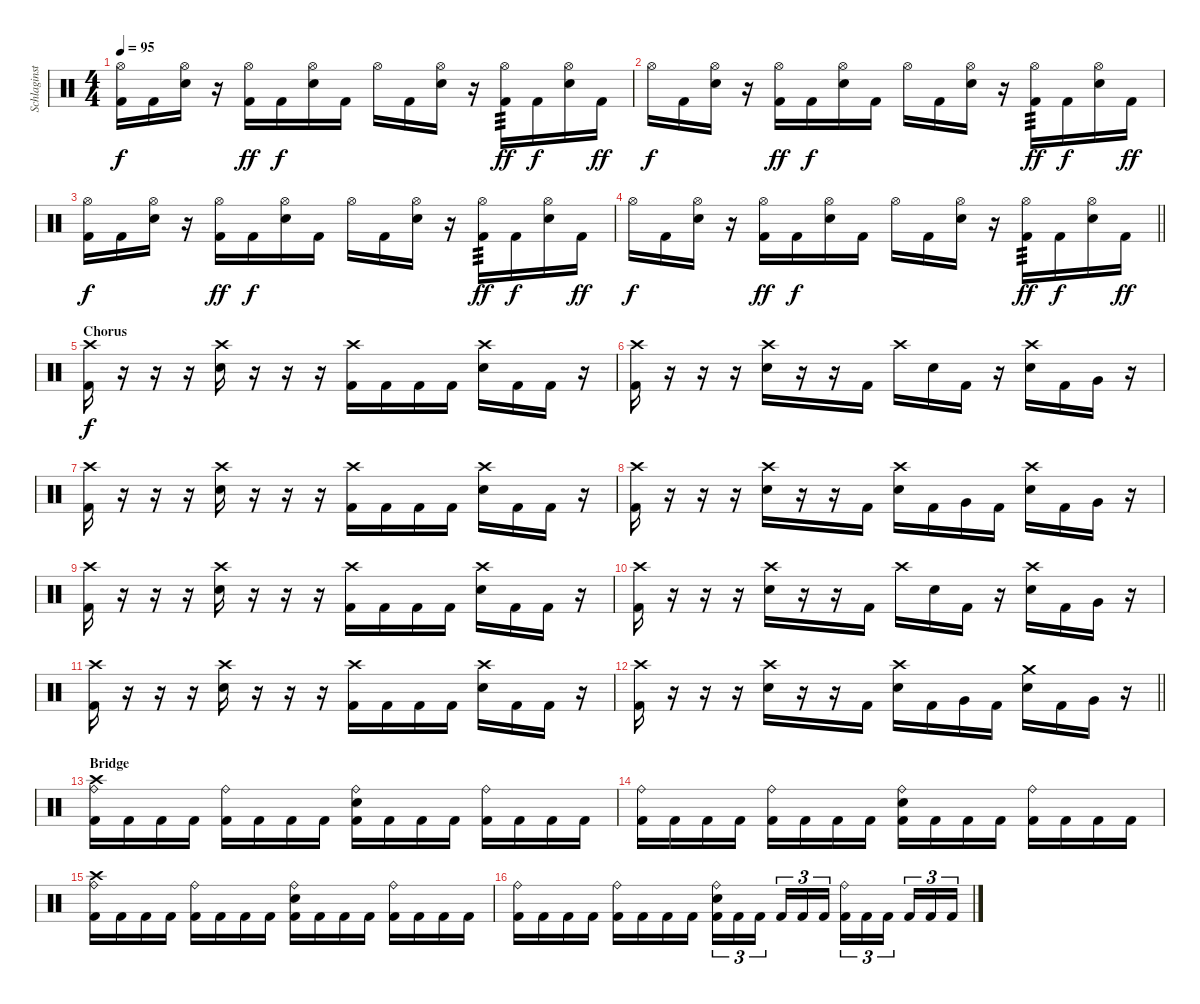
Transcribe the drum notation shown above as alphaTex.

\track ("Schlaginstrumente - Auswahl" "Schlaginst") {instrument percussion}
\staff {score}
\articulation defaults
\ts (4 4)
\tempo 95
\clef neutral
\ks c
("Hi-Hat (open)" "Kick (hit) 2").16{dy f} "Kick (hit) 2".16 ("Hi-Hat (open)" "Electric Snare (hit)").16 r.16 ("Hi-Hat (open)" "Kick (hit) 2").16{dy ff} "Kick (hit) 2".16{dy f} ("Hi-Hat (open)" "Electric Snare (hit)").16 "Kick (hit) 2".16 "Hi-Hat (open)".16 "Kick (hit) 2".16 ("Hi-Hat (open)" "Electric Snare (hit)").16 r.16 ("Hi-Hat (open)" "Kick (hit) 2").16{tp 3 dy ff} "Kick (hit) 2".16{dy f} ("Hi-Hat (open)" "Electric Snare (hit)").16 "Kick (hit) 2".16{dy ff} |
"Hi-Hat (open)".16{dy f} "Kick (hit) 2".16 ("Hi-Hat (open)" "Electric Snare (hit)").16 r.16 ("Hi-Hat (open)" "Kick (hit) 2").16{dy ff} "Kick (hit) 2".16{dy f} ("Hi-Hat (open)" "Electric Snare (hit)").16 "Kick (hit) 2".16 "Hi-Hat (open)".16 "Kick (hit) 2".16 ("Hi-Hat (open)" "Electric Snare (hit)").16 r.16 ("Hi-Hat (open)" "Kick (hit) 2").16{tp 3 dy ff} "Kick (hit) 2".16{dy f} ("Hi-Hat (open)" "Electric Snare (hit)").16 "Kick (hit) 2".16{dy ff} |
("Hi-Hat (open)" "Kick (hit) 2").16{dy f} "Kick (hit) 2".16 ("Hi-Hat (open)" "Electric Snare (hit)").16 r.16 ("Hi-Hat (open)" "Kick (hit) 2").16{dy ff} "Kick (hit) 2".16{dy f} ("Hi-Hat (open)" "Electric Snare (hit)").16 "Kick (hit) 2".16 "Hi-Hat (open)".16 "Kick (hit) 2".16 ("Hi-Hat (open)" "Electric Snare (hit)").16 r.16 ("Hi-Hat (open)" "Kick (hit) 2").16{tp 3 dy ff} "Kick (hit) 2".16{dy f} ("Hi-Hat (open)" "Electric Snare (hit)").16 "Kick (hit) 2".16{dy ff} |
\barLineRight lightlight "Hi-Hat (open)".16{dy f} "Kick (hit) 2".16
("Hi-Hat (open)" "Electric Snare (hit)").16 r.16 ("Hi-Hat (open)" "Kick (hit) 2").16{dy ff} "Kick (hit) 2".16{dy f} ("Hi-Hat (open)" "Electric Snare (hit)").16 "Kick (hit) 2".16 "Hi-Hat (open)".16 "Kick (hit) 2".16 ("Hi-Hat (open)" "Electric Snare (hit)").16 r.16 ("Hi-Hat (open)" "Kick (hit) 2").16{tp 3 dy ff} "Kick (hit) 2".16{dy f} ("Hi-Hat (open)" "Electric Snare (hit)").16 "Kick (hit) 2".16{dy ff} |
\section ("" "Chorus")
("Crash high (hit)" "Kick (hit) 2").16{dy f} r.16 r.16 r.16 ("Crash high (hit)" "Electric Snare (hit)").16 r.16 r.16 r.16 ("Crash high (hit)" "Kick (hit) 2").16 "Kick (hit) 2".16 "Kick (hit) 2".16 "Kick (hit) 2".16 ("Crash high (hit)" "Electric Snare (hit)").16 "Kick (hit) 2".16 "Kick (hit) 2".16 r.16 |
("Crash high (hit)" "Kick (hit) 2").16 r.16 r.16 r.16 ("Crash high (hit)" "Electric Snare (hit)").16 r.16 r.16 "Kick (hit) 2".16 "Crash high (hit)".16 "Electric Snare (hit)".16 "Kick (hit) 2".16 r.16 ("Crash high (hit)" "Electric Snare (hit)").16 "Kick (hit) 2".16 "Very Low Tom (hit)".16 r.16 |
("Crash high (hit)" "Kick (hit) 2").16 r.16 r.16 r.16 ("Crash high (hit)" "Electric Snare (hit)").16 r.16 r.16 r.16 ("Crash high (hit)" "Kick (hit) 2").16 "Kick (hit) 2".16 "Kick (hit) 2".16 "Kick (hit) 2".16 ("Crash high (hit)" "Electric Snare (hit)").16 "Kick (hit) 2".16 "Kick (hit) 2".16 r.16 |
("Crash high (hit)" "Kick (hit) 2").16 r.16 r.16 r.16 ("Crash high (hit)" "Electric Snare (hit)").16 r.16 r.16 "Kick (hit) 2".16 ("Crash high (hit)" "Electric Snare (hit)").16 "Kick (hit) 2".16 "Very Low Tom (hit)".16 "Kick (hit) 2".16 ("Crash high (hit)" "Electric Snare (hit)").16 "Kick (hit) 2".16 "Very Low Tom (hit)".16 r.16 |
("Crash high (hit)" "Kick (hit) 2").16 r.16 r.16 r.16 ("Crash high (hit)" "Electric Snare (hit)").16 r.16 r.16 r.16 ("Crash high (hit)" "Kick (hit) 2").16 "Kick (hit) 2".16 "Kick (hit) 2".16 "Kick (hit) 2".16 ("Crash high (hit)" "Electric Snare (hit)").16 "Kick (hit) 2".16 "Kick (hit) 2".16 r.16 |
("Crash high (hit)" "Kick (hit) 2").16 r.16 r.16 r.16 ("Crash high (hit)" "Electric Snare (hit)").16 r.16 r.16 "Kick (hit) 2".16 "Crash high (hit)".16 "Electric Snare (hit)".16 "Kick (hit) 2".16 r.16 ("Crash high (hit)" "Electric Snare (hit)").16 "Kick (hit) 2".16 "Very Low Tom (hit)".16 r.16 |
("Crash high (hit)" "Kick (hit) 2").16 r.16 r.16 r.16 ("Crash high (hit)" "Electric Snare (hit)").16 r.16 r.16 r.16 ("Crash high (hit)" "Kick (hit) 2").16 "Kick (hit) 2".16 "Kick (hit) 2".16 "Kick (hit) 2".16 ("Crash high (hit)" "Electric Snare (hit)").16 "Kick (hit) 2".16 "Kick (hit) 2".16 r.16 |
\barLineRight lightlight
("Crash high (hit)" "Kick (hit) 2").16 r.16 r.16 r.16 ("Crash high (hit)" "Electric Snare (hit)").16 r.16 r.16 "Kick (hit) 2".16 ("Crash high (hit)" "Electric Snare (hit)").16 "Kick (hit) 2".16 "Very Low Tom (hit)".16 "Kick (hit) 2".16 ("Crash medium (hit)" "Electric Snare (hit)").16 "Kick (hit) 2".16 "Very Low Tom (hit)".16 r.16 |
\section ("" "Bridge")
("Ride (bell)" "Crash high (hit)" "Kick (hit) 2").16 "Kick (hit) 2".16 "Kick (hit) 2".16 "Kick (hit) 2".16 ("Ride (bell)" "Kick (hit) 2").16 "Kick (hit) 2".16 "Kick (hit) 2".16 "Kick (hit) 2".16 ("Ride (bell)" "Electric Snare (hit)" "Kick (hit) 2").16 "Kick (hit) 2".16 "Kick (hit) 2".16 "Kick (hit) 2".16 ("Ride (bell)" "Kick (hit) 2").16 "Kick (hit) 2".16 "Kick (hit) 2".16 "Kick (hit) 2".16 |
("Ride (bell)" "Kick (hit) 2").16 "Kick (hit) 2".16 "Kick (hit) 2".16 "Kick (hit) 2".16 ("Ride (bell)" "Kick (hit) 2").16 "Kick (hit) 2".16 "Kick (hit) 2".16 "Kick (hit) 2".16 ("Ride (bell)" "Electric Snare (hit)" "Kick (hit) 2").16 "Kick (hit) 2".16 "Kick (hit) 2".16 "Kick (hit) 2".16 ("Ride (bell)" "Kick (hit) 2").16 "Kick (hit) 2".16 "Kick (hit) 2".16 "Kick (hit) 2".16 |
("Ride (bell)" "Crash high (hit)" "Kick (hit) 2").16 "Kick (hit) 2".16 "Kick (hit) 2".16 "Kick (hit) 2".16 ("Ride (bell)" "Kick (hit) 2").16 "Kick (hit) 2".16 "Kick (hit) 2".16 "Kick (hit) 2".16 ("Ride (bell)" "Electric Snare (hit)" "Kick (hit) 2").16 "Kick (hit) 2".16 "Kick (hit) 2".16 "Kick (hit) 2".16 ("Ride (bell)" "Kick (hit) 2").16 "Kick (hit) 2".16 "Kick (hit) 2".16 "Kick (hit) 2".16 |
("Ride (bell)" "Kick (hit) 2").16 "Kick (hit) 2".16 "Kick (hit) 2".16 "Kick (hit) 2".16 ("Ride (bell)" "Kick (hit) 2").16 "Kick (hit) 2".16 "Kick (hit) 2".16 "Kick (hit) 2".16 ("Ride (bell)" "Electric Snare (hit)" "Kick (hit) 2").16{tu (3 2)} "Kick (hit) 2".16{tu (3 2)} "Kick (hit) 2".16{tu (3 2)} "Kick (hit) 2".16{tu (3 2)} "Kick (hit) 2".16{tu (3 2)} "Kick (hit) 2".16{tu (3 2)} ("Ride (bell)" "Kick (hit) 2").16{tu (3 2)} "Kick (hit) 2".16{tu (3 2)} "Kick (hit) 2".16{tu (3 2)} "Kick (hit) 2".16{tu (3 2)} "Kick (hit) 2".16{tu (3 2)} "Kick (hit) 2".16{tu (3 2)}
